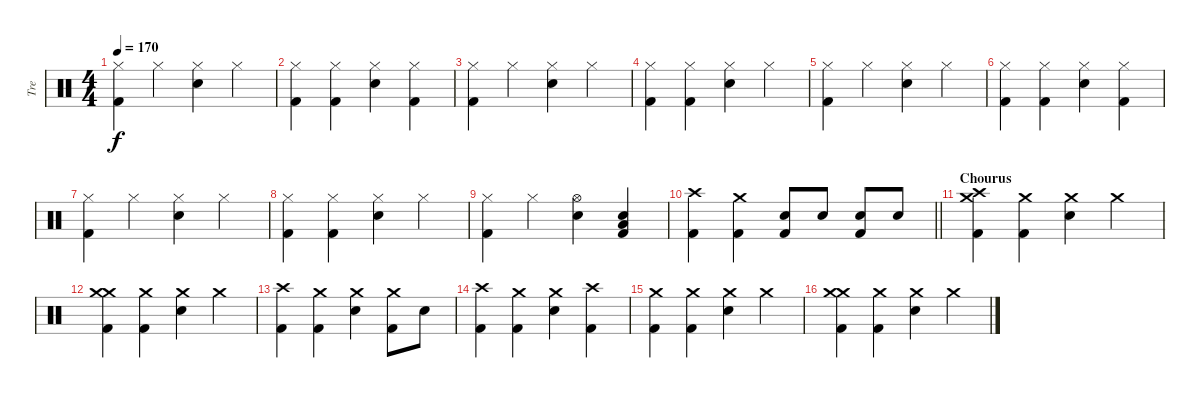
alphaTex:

\track ("Tre" "Tre") {instrument percussion}
\staff {score}
\articulation defaults
\ts (4 4)
\tempo 170
\clef neutral
\ks c
("Hi-Hat (closed)" "Kick (hit) 2").4{dy f} "Hi-Hat (closed)".4 ("Hi-Hat (closed)" "Snare (hit) 2").4 "Hi-Hat (closed)".4 |
("Hi-Hat (closed)" "Kick (hit) 2").4 ("Hi-Hat (closed)" "Kick (hit) 2").4 ("Hi-Hat (closed)" "Snare (hit) 2").4 ("Hi-Hat (closed)" "Kick (hit) 2").4 |
("Hi-Hat (closed)" "Kick (hit) 2").4 "Hi-Hat (closed)".4 ("Hi-Hat (closed)" "Snare (hit) 2").4 "Hi-Hat (closed)".4 |
("Hi-Hat (closed)" "Kick (hit) 2").4 ("Hi-Hat (closed)" "Kick (hit) 2").4 ("Hi-Hat (closed)" "Snare (hit) 2").4 "Hi-Hat (closed)".4 |
("Hi-Hat (closed)" "Kick (hit) 2").4 "Hi-Hat (closed)".4 ("Hi-Hat (closed)" "Snare (hit) 2").4 "Hi-Hat (closed)".4 |
("Hi-Hat (closed)" "Kick (hit) 2").4 ("Hi-Hat (closed)" "Kick (hit) 2").4 ("Hi-Hat (closed)" "Snare (hit) 2").4 ("Hi-Hat (closed)" "Kick (hit) 2").4 |
("Hi-Hat (closed)" "Kick (hit) 2").4 "Hi-Hat (closed)".4 ("Hi-Hat (closed)" "Snare (hit) 2").4 "Hi-Hat (closed)".4 |
("Hi-Hat (closed)" "Kick (hit) 2").4 ("Hi-Hat (closed)" "Kick (hit) 2").4 ("Hi-Hat (closed)" "Snare (hit) 2").4 "Hi-Hat (closed)".4 |
("Hi-Hat (closed)" "Kick (hit) 2").4 "Hi-Hat (closed)".4 ("Hi-Hat (open)" "Snare (hit) 2").4 ("Snare (hit) 2" "Low Floor Tom (hit)" "Kick (hit) 2").4 |
\barLineRight lightlight
("Crash high (hit)" "Kick (hit) 2").4 ("Crash medium (hit)" "Kick (hit) 2").4 ("Snare (hit) 2" "Kick (hit) 2").8 "Snare (hit) 2".8 ("Snare (hit) 2" "Kick (hit) 2").8 "Snare (hit) 2".8 |
\section ("" "Chourus")
("Crash medium (hit)" "Crash high (hit)" "Kick (hit) 2").4 ("Crash medium (hit)" "Kick (hit) 2").4 ("Crash medium (hit)" "Snare (hit) 2").4 "Crash medium (hit)".4 |
("Crash medium (hit)" "Crash medium (hit)" "Kick (hit) 2").4 ("Crash medium (hit)" "Kick (hit) 2").4 ("Crash medium (hit)" "Snare (hit) 2").4 "Crash medium (hit)".4 |
("Crash high (hit)" "Kick (hit) 2").4 ("Crash medium (hit)" "Kick (hit) 2").4 ("Crash medium (hit)" "Snare (hit) 2").4 ("Crash medium (hit)" "Kick (hit) 2").8 "Snare (hit) 2".8 |
("Crash high (hit)" "Kick (hit) 2").4 ("Crash medium (hit)" "Kick (hit) 2").4 ("Crash medium (hit)" "Snare (hit) 2").4 ("Crash high (hit)" "Kick (hit) 2").4 |
("Crash medium (hit)" "Kick (hit) 2").4 ("Crash medium (hit)" "Kick (hit) 2").4 ("Crash medium (hit)" "Snare (hit) 2").4 "Crash medium (hit)".4 |
("Crash medium (hit)" "Crash medium (hit)" "Kick (hit) 2").4 ("Crash medium (hit)" "Kick (hit) 2").4 ("Crash medium (hit)" "Snare (hit) 2").4 "Crash medium (hit)".4
